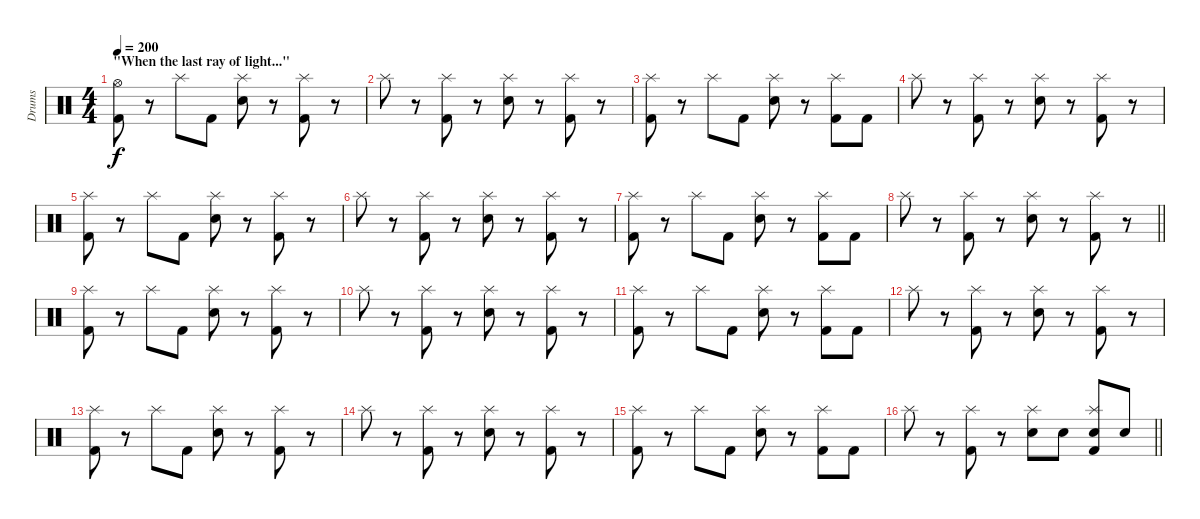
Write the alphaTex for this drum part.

\track ("Drums" "Drums") {instrument percussion}
\staff {score}
\articulation defaults
\ts (4 4)
\section ("" "\"When the last ray of light...\"")
\tempo 200
\clef neutral
\ks c
("Hi-Hat (open)" "Kick (hit) 2").8{dy f} r.8 "Splash (hit)".8 "Kick (hit) 2".8 ("Splash (hit)" "Electric Snare (hit)").8 r.8 ("Splash (hit)" "Kick (hit) 2").8 r.8 |
"Splash (hit)".8 r.8 ("Splash (hit)" "Kick (hit) 2").8 r.8 ("Splash (hit)" "Electric Snare (hit)").8 r.8 ("Splash (hit)" "Kick (hit) 2").8 r.8 |
("Splash (hit)" "Kick (hit) 2").8 r.8 "Splash (hit)".8 "Kick (hit) 2".8 ("Splash (hit)" "Electric Snare (hit)").8 r.8 ("Splash (hit)" "Kick (hit) 2").8 "Kick (hit) 2".8 |
"Splash (hit)".8 r.8 ("Splash (hit)" "Kick (hit) 2").8 r.8 ("Splash (hit)" "Electric Snare (hit)").8 r.8 ("Splash (hit)" "Kick (hit) 2").8 r.8 |
("Splash (hit)" "Kick (hit) 2").8 r.8 "Splash (hit)".8 "Kick (hit) 2".8 ("Splash (hit)" "Electric Snare (hit)").8 r.8 ("Splash (hit)" "Kick (hit) 2").8 r.8 |
"Splash (hit)".8 r.8 ("Splash (hit)" "Kick (hit) 2").8 r.8 ("Splash (hit)" "Electric Snare (hit)").8 r.8 ("Splash (hit)" "Kick (hit) 2").8 r.8 |
("Splash (hit)" "Kick (hit) 2").8 r.8 "Splash (hit)".8 "Kick (hit) 2".8 ("Splash (hit)" "Electric Snare (hit)").8 r.8 ("Splash (hit)" "Kick (hit) 2").8 "Kick (hit) 2".8 |
\barLineRight lightlight "Splash (hit)".8
r.8 ("Splash (hit)" "Kick (hit) 2").8 r.8 ("Splash (hit)" "Electric Snare (hit)").8 r.8 ("Splash (hit)" "Kick (hit) 2").8 r.8 |
("Splash (hit)" "Kick (hit) 2").8 r.8 "Splash (hit)".8 "Kick (hit) 2".8 ("Splash (hit)" "Electric Snare (hit)").8 r.8 ("Splash (hit)" "Kick (hit) 2").8 r.8 |
"Splash (hit)".8 r.8 ("Splash (hit)" "Kick (hit) 2").8 r.8 ("Splash (hit)" "Electric Snare (hit)").8 r.8 ("Splash (hit)" "Kick (hit) 2").8 r.8 |
("Splash (hit)" "Kick (hit) 2").8 r.8 "Splash (hit)".8 "Kick (hit) 2".8 ("Splash (hit)" "Electric Snare (hit)").8 r.8 ("Splash (hit)" "Kick (hit) 2").8 "Kick (hit) 2".8 |
"Splash (hit)".8 r.8 ("Splash (hit)" "Kick (hit) 2").8 r.8 ("Splash (hit)" "Electric Snare (hit)").8 r.8 ("Splash (hit)" "Kick (hit) 2").8 r.8 |
("Splash (hit)" "Kick (hit) 2").8 r.8 "Splash (hit)".8 "Kick (hit) 2".8 ("Splash (hit)" "Electric Snare (hit)").8 r.8 ("Splash (hit)" "Kick (hit) 2").8 r.8 |
"Splash (hit)".8 r.8 ("Splash (hit)" "Kick (hit) 2").8 r.8 ("Splash (hit)" "Electric Snare (hit)").8 r.8 ("Splash (hit)" "Kick (hit) 2").8 r.8 |
("Splash (hit)" "Kick (hit) 2").8 r.8 "Splash (hit)".8 "Kick (hit) 2".8 ("Splash (hit)" "Electric Snare (hit)").8 r.8 ("Splash (hit)" "Kick (hit) 2").8 "Kick (hit) 2".8 |
\barLineRight lightlight "Splash (hit)".8
r.8 ("Splash (hit)" "Kick (hit) 2").8 r.8 ("Splash (hit)" "Electric Snare (hit)").8 "Electric Snare (hit)".8 ("Splash (hit)" "Electric Snare (hit)" "Kick (hit) 2").8 "Electric Snare (hit)".8
